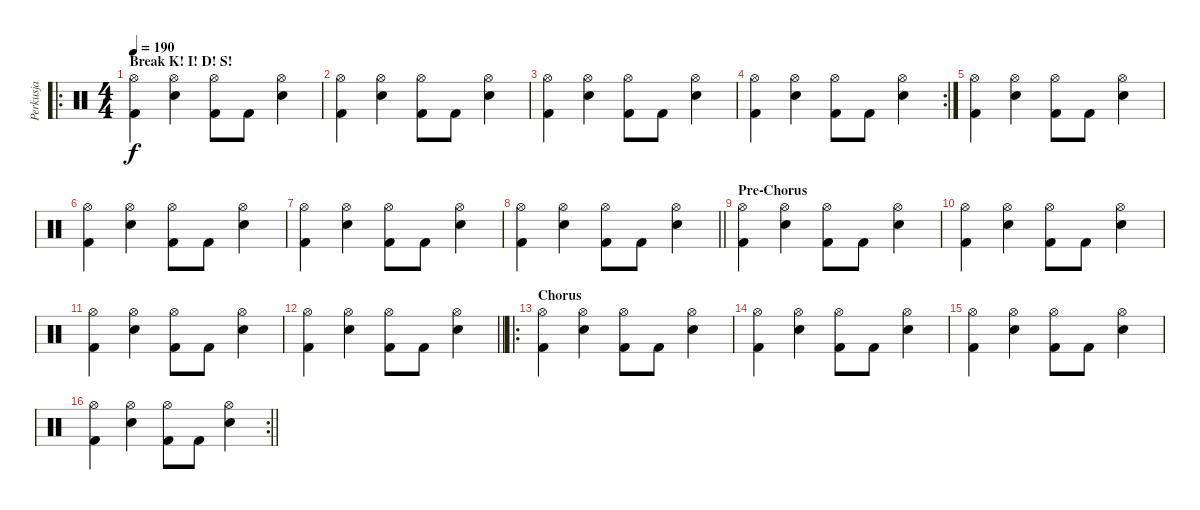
\track ("Perkusja" "Perkusja") {instrument percussion}
\staff {score}
\articulation defaults
\ro
\ts (4 4)
\section ("" "Break K! I! D! S!")
\tempo 190
\clef neutral
\ks c
("Kick (hit) 2" "Hi-Hat (open)").4{dy f} ("Electric Snare (hit)" "Hi-Hat (open)").4 ("Kick (hit) 2" "Hi-Hat (open)").8 "Kick (hit) 2".8 ("Electric Snare (hit)" "Hi-Hat (open)").4 |
("Kick (hit) 2" "Hi-Hat (open)").4 ("Electric Snare (hit)" "Hi-Hat (open)").4 ("Kick (hit) 2" "Hi-Hat (open)").8 "Kick (hit) 2".8 ("Electric Snare (hit)" "Hi-Hat (open)").4 |
("Kick (hit) 2" "Hi-Hat (open)").4 ("Electric Snare (hit)" "Hi-Hat (open)").4 ("Kick (hit) 2" "Hi-Hat (open)").8 "Kick (hit) 2".8 ("Electric Snare (hit)" "Hi-Hat (open)").4 |
\rc 2
("Kick (hit) 2" "Hi-Hat (open)").4 ("Electric Snare (hit)" "Hi-Hat (open)").4 ("Kick (hit) 2" "Hi-Hat (open)").8 "Kick (hit) 2".8 ("Electric Snare (hit)" "Hi-Hat (open)").4 |
("Kick (hit) 2" "Hi-Hat (open)").4 ("Electric Snare (hit)" "Hi-Hat (open)").4 ("Kick (hit) 2" "Hi-Hat (open)").8 "Kick (hit) 2".8 ("Electric Snare (hit)" "Hi-Hat (open)").4 |
("Kick (hit) 2" "Hi-Hat (open)").4 ("Electric Snare (hit)" "Hi-Hat (open)").4 ("Kick (hit) 2" "Hi-Hat (open)").8 "Kick (hit) 2".8 ("Electric Snare (hit)" "Hi-Hat (open)").4 |
("Kick (hit) 2" "Hi-Hat (open)").4 ("Electric Snare (hit)" "Hi-Hat (open)").4 ("Kick (hit) 2" "Hi-Hat (open)").8 "Kick (hit) 2".8 ("Electric Snare (hit)" "Hi-Hat (open)").4 |
\barLineRight lightlight
("Kick (hit) 2" "Hi-Hat (open)").4 ("Electric Snare (hit)" "Hi-Hat (open)").4 ("Kick (hit) 2" "Hi-Hat (open)").8 "Kick (hit) 2".8 ("Electric Snare (hit)" "Hi-Hat (open)").4 |
\section ("" "Pre-Chorus")
("Kick (hit) 2" "Hi-Hat (open)").4 ("Electric Snare (hit)" "Hi-Hat (open)").4 ("Kick (hit) 2" "Hi-Hat (open)").8 "Kick (hit) 2".8 ("Electric Snare (hit)" "Hi-Hat (open)").4 |
("Kick (hit) 2" "Hi-Hat (open)").4 ("Electric Snare (hit)" "Hi-Hat (open)").4 ("Kick (hit) 2" "Hi-Hat (open)").8 "Kick (hit) 2".8 ("Electric Snare (hit)" "Hi-Hat (open)").4 |
("Kick (hit) 2" "Hi-Hat (open)").4 ("Electric Snare (hit)" "Hi-Hat (open)").4 ("Kick (hit) 2" "Hi-Hat (open)").8 "Kick (hit) 2".8 ("Electric Snare (hit)" "Hi-Hat (open)").4 |
\barLineRight lightlight
("Kick (hit) 2" "Hi-Hat (open)").4 ("Electric Snare (hit)" "Hi-Hat (open)").4 ("Kick (hit) 2" "Hi-Hat (open)").8 "Kick (hit) 2".8 ("Electric Snare (hit)" "Hi-Hat (open)").4 |
\ro
\section ("" "Chorus")
("Kick (hit) 2" "Hi-Hat (open)").4 ("Electric Snare (hit)" "Hi-Hat (open)").4 ("Kick (hit) 2" "Hi-Hat (open)").8 "Kick (hit) 2".8 ("Electric Snare (hit)" "Hi-Hat (open)").4 |
("Kick (hit) 2" "Hi-Hat (open)").4 ("Electric Snare (hit)" "Hi-Hat (open)").4 ("Kick (hit) 2" "Hi-Hat (open)").8 "Kick (hit) 2".8 ("Electric Snare (hit)" "Hi-Hat (open)").4 |
("Kick (hit) 2" "Hi-Hat (open)").4 ("Electric Snare (hit)" "Hi-Hat (open)").4 ("Kick (hit) 2" "Hi-Hat (open)").8 "Kick (hit) 2".8 ("Electric Snare (hit)" "Hi-Hat (open)").4 |
\rc 2
\barLineRight lightlight
("Kick (hit) 2" "Hi-Hat (open)").4 ("Electric Snare (hit)" "Hi-Hat (open)").4 ("Kick (hit) 2" "Hi-Hat (open)").8 "Kick (hit) 2".8 ("Electric Snare (hit)" "Hi-Hat (open)").4
